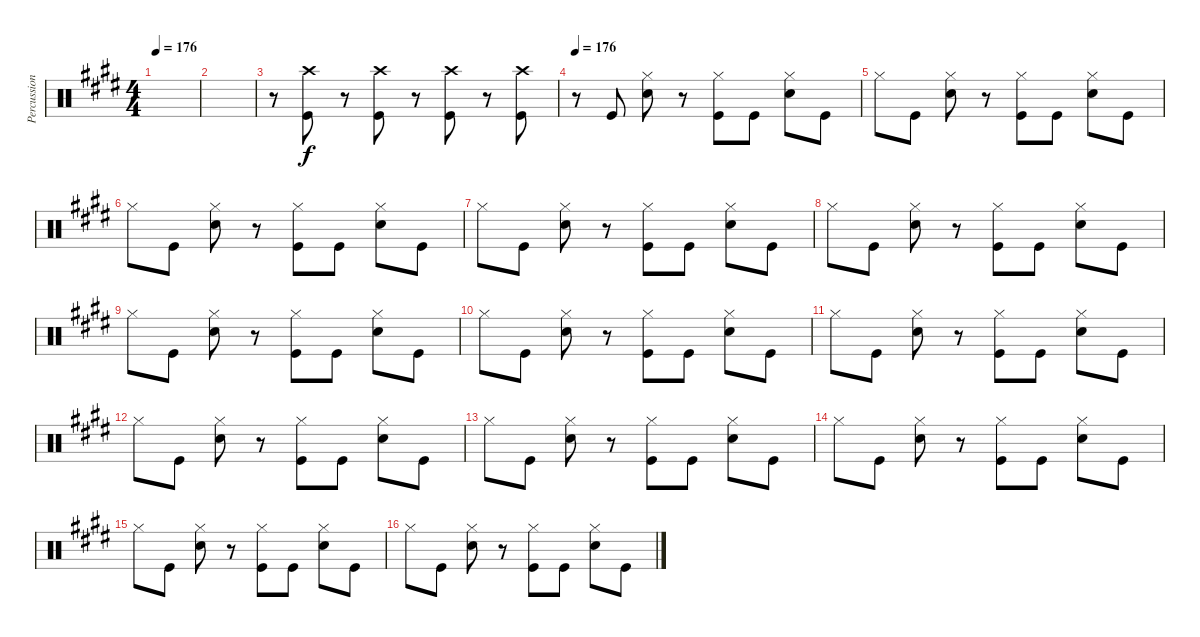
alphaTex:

\track ("Percussion" "Percussion") {instrument percussion}
\staff {score}
\articulation defaults
\ts (4 4)
\tempo 176
\clef neutral
\ks c#minor
|
|
r.8 ("Crash high (hit)" "Kick (hit)").8 r.8 ("Crash high (hit)" "Kick (hit)").8 r.8 ("Crash high (hit)" "Kick (hit)").8 r.8 ("Crash high (hit)" "Kick (hit)").8 |
\tempo 176
r.8 "Kick (hit)".8 ("Hi-Hat (closed)" "Snare (hit) 2").8 r.8 ("Hi-Hat (closed)" "Kick (hit)").8 "Kick (hit)".8 ("Hi-Hat (closed)" "Snare (hit) 2").8 "Kick (hit)".8 |
"Hi-Hat (closed)".8 "Kick (hit)".8 ("Hi-Hat (closed)" "Snare (hit) 2").8 r.8 ("Hi-Hat (closed)" "Kick (hit)").8 "Kick (hit)".8 ("Hi-Hat (closed)" "Snare (hit) 2").8 "Kick (hit)".8 |
"Hi-Hat (closed)".8 "Kick (hit)".8 ("Hi-Hat (closed)" "Snare (hit) 2").8 r.8 ("Hi-Hat (closed)" "Kick (hit)").8 "Kick (hit)".8 ("Hi-Hat (closed)" "Snare (hit) 2").8 "Kick (hit)".8 |
"Hi-Hat (closed)".8 "Kick (hit)".8 ("Hi-Hat (closed)" "Snare (hit) 2").8 r.8 ("Hi-Hat (closed)" "Kick (hit)").8 "Kick (hit)".8 ("Hi-Hat (closed)" "Snare (hit) 2").8 "Kick (hit)".8 |
"Hi-Hat (closed)".8 "Kick (hit)".8 ("Hi-Hat (closed)" "Snare (hit) 2").8 r.8 ("Hi-Hat (closed)" "Kick (hit)").8 "Kick (hit)".8 ("Hi-Hat (closed)" "Snare (hit) 2").8 "Kick (hit)".8 |
"Hi-Hat (closed)".8 "Kick (hit)".8 ("Hi-Hat (closed)" "Snare (hit) 2").8 r.8 ("Hi-Hat (closed)" "Kick (hit)").8 "Kick (hit)".8 ("Hi-Hat (closed)" "Snare (hit) 2").8 "Kick (hit)".8 |
"Hi-Hat (closed)".8 "Kick (hit)".8 ("Hi-Hat (closed)" "Snare (hit) 2").8 r.8 ("Hi-Hat (closed)" "Kick (hit)").8 "Kick (hit)".8 ("Hi-Hat (closed)" "Snare (hit) 2").8 "Kick (hit)".8 |
"Hi-Hat (closed)".8 "Kick (hit)".8 ("Hi-Hat (closed)" "Snare (hit) 2").8 r.8 ("Hi-Hat (closed)" "Kick (hit)").8 "Kick (hit)".8 ("Hi-Hat (closed)" "Snare (hit) 2").8 "Kick (hit)".8 |
"Hi-Hat (closed)".8 "Kick (hit)".8 ("Hi-Hat (closed)" "Snare (hit) 2").8 r.8 ("Hi-Hat (closed)" "Kick (hit)").8 "Kick (hit)".8 ("Hi-Hat (closed)" "Snare (hit) 2").8 "Kick (hit)".8 |
"Hi-Hat (closed)".8 "Kick (hit)".8 ("Hi-Hat (closed)" "Snare (hit) 2").8 r.8 ("Hi-Hat (closed)" "Kick (hit)").8 "Kick (hit)".8 ("Hi-Hat (closed)" "Snare (hit) 2").8 "Kick (hit)".8 |
"Hi-Hat (closed)".8 "Kick (hit)".8 ("Hi-Hat (closed)" "Snare (hit) 2").8 r.8 ("Hi-Hat (closed)" "Kick (hit)").8 "Kick (hit)".8 ("Hi-Hat (closed)" "Snare (hit) 2").8 "Kick (hit)".8 |
"Hi-Hat (closed)".8 "Kick (hit)".8 ("Hi-Hat (closed)" "Snare (hit) 2").8 r.8 ("Hi-Hat (closed)" "Kick (hit)").8 "Kick (hit)".8 ("Hi-Hat (closed)" "Snare (hit) 2").8 "Kick (hit)".8 |
"Hi-Hat (closed)".8 "Kick (hit)".8 ("Hi-Hat (closed)" "Snare (hit) 2").8 r.8 ("Hi-Hat (closed)" "Kick (hit)").8 "Kick (hit)".8 ("Hi-Hat (closed)" "Snare (hit) 2").8 "Kick (hit)".8
